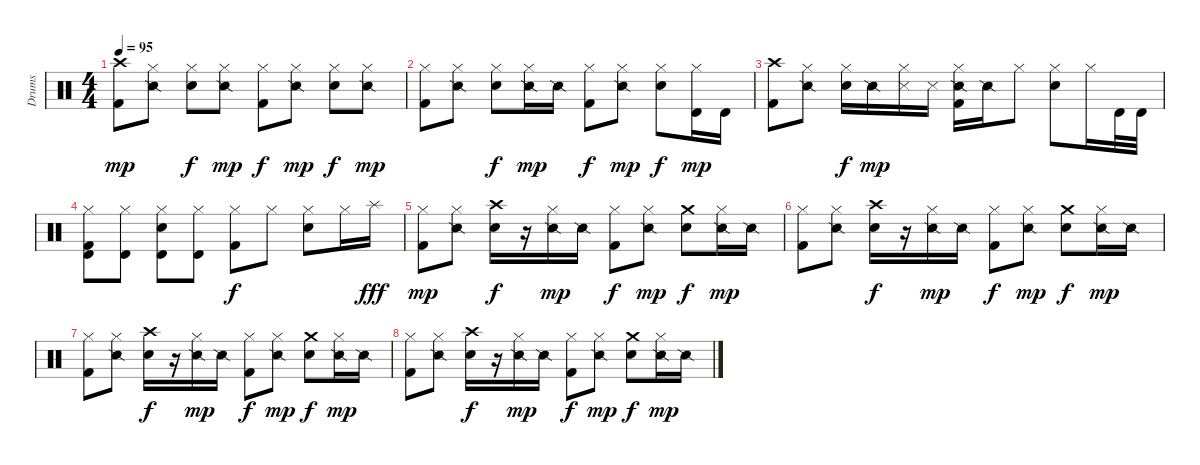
\track ("Drums" "Drums") {instrument percussion}
\staff {score}
\articulation defaults
\ts (4 4)
\tempo 95
\clef neutral
\ks c
("Crash high (hit)" "Kick (hit) 2").8{dy mp} ("Hi-Hat (closed)" "Snare (side stick) 2").8 ("Hi-Hat (closed)" "Snare (hit) 2").8{dy f} ("Hi-Hat (closed)" "Snare (side stick) 2").8{dy mp} ("Hi-Hat (closed)" "Kick (hit) 2").8{dy f} ("Hi-Hat (closed)" "Snare (side stick) 2").8{dy mp} ("Hi-Hat (closed)" "Snare (hit) 2").8{dy f} ("Hi-Hat (closed)" "Snare (side stick) 2").8{dy mp} |
("Hi-Hat (closed)" "Kick (hit) 2").8 ("Hi-Hat (closed)" "Snare (side stick) 2").8 ("Hi-Hat (closed)" "Snare (hit) 2").8{dy f} ("Hi-Hat (closed)" "Snare (side stick) 2").16{dy mp} "Snare (side stick) 2".16 ("Hi-Hat (closed)" "Kick (hit) 2").8{dy f} ("Hi-Hat (closed)" "Snare (side stick) 2").8{dy mp} ("Hi-Hat (closed)" "Snare (hit) 2").8{dy f} ("Hi-Hat (closed)" "Timbale high (hit)").16{dy mp} "Timbale high (hit)".16 |
("Crash high (hit)" "Kick (hit) 2").8 ("Hi-Hat (closed)" "Snare (side stick) 2").8 ("Hi-Hat (closed)" "Snare (hit) 2").16{dy f} "Snare (side stick) 2".16{dy mp} ("Hi-Hat (closed)" "Snare (side stick) 3").16 "Snare (side stick) 3".16 ("Hi-Hat (closed)" "Kick (hit) 2" "Snare (side stick) 2").16 "Snare (side stick) 2".16 "Hi-Hat (closed)".8 ("Hi-Hat (closed)" "Snare (hit) 2").8 "Hi-Hat (closed)".16 "Timbale high (hit)".32 "Timbale high (hit)".32 |
("Hi-Hat (closed)" "Kick (hit) 2" "Timbale high (hit)").8 ("Hi-Hat (closed)" "Timbale high (hit)").8 ("Hi-Hat (closed)" "Snare (hit) 2" "Timbale high (hit)").8 ("Hi-Hat (closed)" "Timbale high (hit)").8 ("Hi-Hat (closed)" "Kick (hit) 2").8{dy f} "Hi-Hat (closed)".8 ("Hi-Hat (closed)" "Snare (hit) 2").8 "Hi-Hat (closed)".16 "Splash (hit)".16{dy fff} |
("Hi-Hat (closed)" "Kick (hit) 2").8{dy mp} ("Hi-Hat (closed)" "Snare (side stick) 2").8 ("Crash high (hit)" "Snare (hit) 2").16{dy f} r.16 ("Hi-Hat (closed)" "Snare (side stick) 2").16{dy mp} "Snare (side stick) 2".16 ("Hi-Hat (closed)" "Kick (hit) 2").8{dy f} ("Hi-Hat (closed)" "Snare (side stick) 2").8{dy mp} ("Crash medium (hit)" "Snare (hit) 2").8{dy f} ("Hi-Hat (closed)" "Snare (side stick) 2").16{dy mp} "Snare (side stick) 2".16 |
("Hi-Hat (closed)" "Kick (hit) 2").8 ("Hi-Hat (closed)" "Snare (side stick) 2").8 ("Crash high (hit)" "Snare (hit) 2").16{dy f} r.16 ("Hi-Hat (closed)" "Snare (side stick) 2").16{dy mp} "Snare (side stick) 2".16 ("Hi-Hat (closed)" "Kick (hit) 2").8{dy f} ("Hi-Hat (closed)" "Snare (side stick) 2").8{dy mp} ("Crash medium (hit)" "Snare (hit) 2").8{dy f} ("Hi-Hat (closed)" "Snare (side stick) 2").16{dy mp} "Snare (side stick) 2".16 |
("Hi-Hat (closed)" "Kick (hit) 2").8 ("Hi-Hat (closed)" "Snare (side stick) 2").8 ("Crash high (hit)" "Snare (hit) 2").16{dy f} r.16 ("Hi-Hat (closed)" "Snare (side stick) 2").16{dy mp} "Snare (side stick) 2".16 ("Hi-Hat (closed)" "Kick (hit) 2").8{dy f} ("Hi-Hat (closed)" "Snare (side stick) 2").8{dy mp} ("Crash medium (hit)" "Snare (hit) 2").8{dy f} ("Hi-Hat (closed)" "Snare (side stick) 2").16{dy mp} "Snare (side stick) 2".16 |
("Hi-Hat (closed)" "Kick (hit) 2").8 ("Hi-Hat (closed)" "Snare (side stick) 2").8 ("Crash high (hit)" "Snare (hit) 2").16{dy f} r.16 ("Hi-Hat (closed)" "Snare (side stick) 2").16{dy mp} "Snare (side stick) 2".16 ("Hi-Hat (closed)" "Kick (hit) 2").8{dy f} ("Hi-Hat (closed)" "Snare (side stick) 2").8{dy mp} ("Crash medium (hit)" "Snare (hit) 2").8{dy f} ("Hi-Hat (closed)" "Snare (side stick) 2").16{dy mp} "Snare (side stick) 2".16
